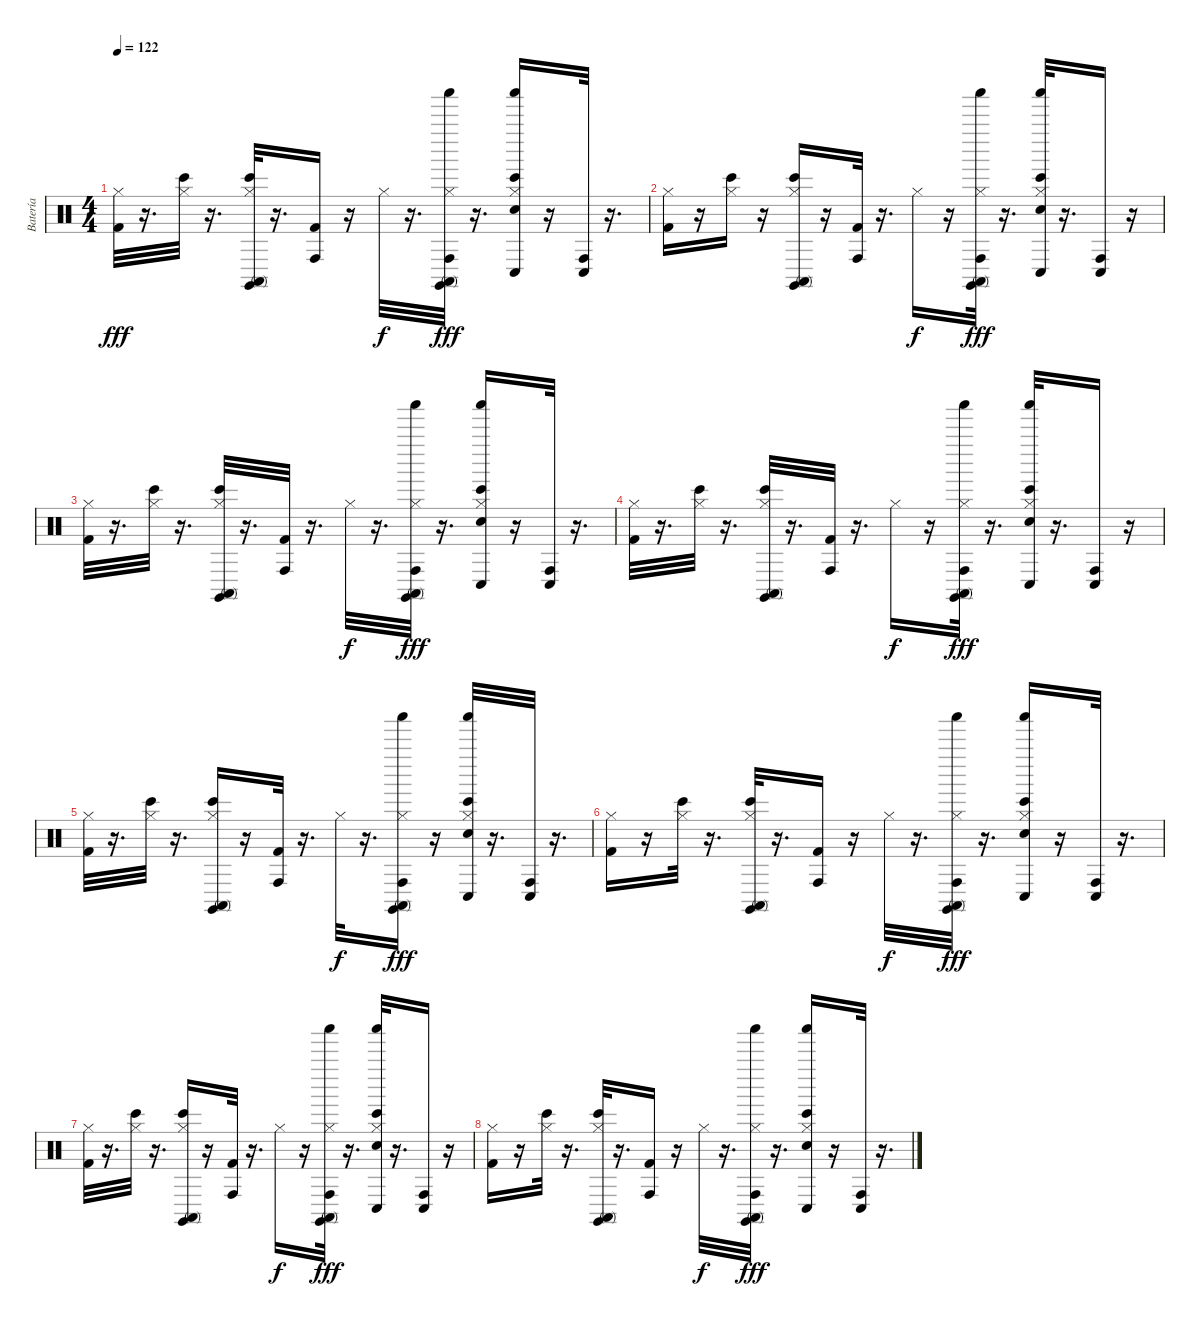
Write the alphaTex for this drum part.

\track ("Batería" "Batería") {instrument percussion}
\staff {score}
\articulation defaults
\ts (4 4)
\tempo 122
\clef neutral
\ks c
("Hi-Hat (closed)" "Kick (hit) 2").32{dy fff} r.16{d} ("Bongo High (hit)" "Hi-Hat (closed)").32 r.16{d} ("Claves (hit)" "Bongo High (hit)" "Conga high (mute)" "Hi-Hat (closed)").32 r.16{d} ("Conga high (hit)" "Kick (hit) 2").16 r.16 "Hi-Hat (closed)".32{dy f} r.16{d} ("Claves (hit)" "Conga high (hit)" "Conga high (mute)" "Shaker (hit)" "Hi-Hat (closed)").32{dy fff} r.16{d} ("Snare (hit) 2" "Bongo High (hit)" "Conga low (hit)" "Shaker (hit)" "Hi-Hat (closed)").16 r.16 ("Conga high (hit)" "Conga low (hit)").32 r.16{d} |
("Hi-Hat (closed)" "Kick (hit) 2").16 r.16 ("Bongo High (hit)" "Hi-Hat (closed)").16 r.16 ("Claves (hit)" "Bongo High (hit)" "Conga high (mute)" "Hi-Hat (closed)").16 r.16 ("Conga high (hit)" "Kick (hit) 2").32 r.16{d} "Hi-Hat (closed)".16{dy f} r.16 ("Claves (hit)" "Conga high (hit)" "Conga high (mute)" "Shaker (hit)" "Hi-Hat (closed)").32{dy fff} r.16{d} ("Snare (hit) 2" "Bongo High (hit)" "Conga low (hit)" "Shaker (hit)" "Hi-Hat (closed)").32 r.16{d} ("Conga high (hit)" "Conga low (hit)").16 r.16 |
("Hi-Hat (closed)" "Kick (hit) 2").32 r.16{d} ("Bongo High (hit)" "Hi-Hat (closed)").32 r.16{d} ("Claves (hit)" "Bongo High (hit)" "Conga high (mute)" "Hi-Hat (closed)").32 r.16{d} ("Conga high (hit)" "Kick (hit) 2").32 r.16{d} "Hi-Hat (closed)".32{dy f} r.16{d} ("Claves (hit)" "Conga high (hit)" "Conga high (mute)" "Shaker (hit)" "Hi-Hat (closed)").32{dy fff} r.16{d} ("Snare (hit) 2" "Bongo High (hit)" "Conga low (hit)" "Shaker (hit)" "Hi-Hat (closed)").16 r.16 ("Conga high (hit)" "Conga low (hit)").32 r.16{d} |
("Hi-Hat (closed)" "Kick (hit) 2").32 r.16{d} ("Bongo High (hit)" "Hi-Hat (closed)").32 r.16{d} ("Claves (hit)" "Bongo High (hit)" "Conga high (mute)" "Hi-Hat (closed)").32 r.16{d} ("Conga high (hit)" "Kick (hit) 2").32 r.16{d} "Hi-Hat (closed)".16{dy f} r.16 ("Claves (hit)" "Conga high (hit)" "Conga high (mute)" "Shaker (hit)" "Hi-Hat (closed)").32{dy fff} r.16{d} ("Snare (hit) 2" "Bongo High (hit)" "Conga low (hit)" "Shaker (hit)" "Hi-Hat (closed)").32 r.16{d} ("Conga high (hit)" "Conga low (hit)").16 r.16 |
("Hi-Hat (closed)" "Kick (hit) 2").32 r.16{d} ("Bongo High (hit)" "Hi-Hat (closed)").32 r.16{d} ("Claves (hit)" "Bongo High (hit)" "Conga high (mute)" "Hi-Hat (closed)").16 r.16 ("Conga high (hit)" "Kick (hit) 2").32 r.16{d} "Hi-Hat (closed)".32{dy f} r.16{d} ("Claves (hit)" "Conga high (hit)" "Conga high (mute)" "Shaker (hit)" "Hi-Hat (closed)").16{dy fff} r.16 ("Snare (hit) 2" "Bongo High (hit)" "Conga low (hit)" "Shaker (hit)" "Hi-Hat (closed)").32 r.16{d} ("Conga high (hit)" "Conga low (hit)").32 r.16{d} |
("Hi-Hat (closed)" "Kick (hit) 2").16 r.16 ("Bongo High (hit)" "Hi-Hat (closed)").32 r.16{d} ("Claves (hit)" "Bongo High (hit)" "Conga high (mute)" "Hi-Hat (closed)").32 r.16{d} ("Conga high (hit)" "Kick (hit) 2").16 r.16 "Hi-Hat (closed)".32{dy f} r.16{d} ("Claves (hit)" "Conga high (hit)" "Conga high (mute)" "Shaker (hit)" "Hi-Hat (closed)").32{dy fff} r.16{d} ("Snare (hit) 2" "Bongo High (hit)" "Conga low (hit)" "Shaker (hit)" "Hi-Hat (closed)").16 r.16 ("Conga high (hit)" "Conga low (hit)").32 r.16{d} |
("Hi-Hat (closed)" "Kick (hit) 2").32 r.16{d} ("Bongo High (hit)" "Hi-Hat (closed)").32 r.16{d} ("Claves (hit)" "Bongo High (hit)" "Conga high (mute)" "Hi-Hat (closed)").16 r.16 ("Conga high (hit)" "Kick (hit) 2").32 r.16{d} "Hi-Hat (closed)".16{dy f} r.16 ("Claves (hit)" "Conga high (hit)" "Conga high (mute)" "Shaker (hit)" "Hi-Hat (closed)").32{dy fff} r.16{d} ("Snare (hit) 2" "Bongo High (hit)" "Conga low (hit)" "Shaker (hit)" "Hi-Hat (closed)").32 r.16{d} ("Conga high (hit)" "Conga low (hit)").16 r.16 |
("Hi-Hat (closed)" "Kick (hit) 2").16 r.16 ("Bongo High (hit)" "Hi-Hat (closed)").32 r.16{d} ("Claves (hit)" "Bongo High (hit)" "Conga high (mute)" "Hi-Hat (closed)").32 r.16{d} ("Conga high (hit)" "Kick (hit) 2").16 r.16 "Hi-Hat (closed)".32{dy f} r.16{d} ("Claves (hit)" "Conga high (hit)" "Conga high (mute)" "Shaker (hit)" "Hi-Hat (closed)").32{dy fff} r.16{d} ("Snare (hit) 2" "Bongo High (hit)" "Conga low (hit)" "Shaker (hit)" "Hi-Hat (closed)").16 r.16 ("Conga high (hit)" "Conga low (hit)").32 r.16{d}
